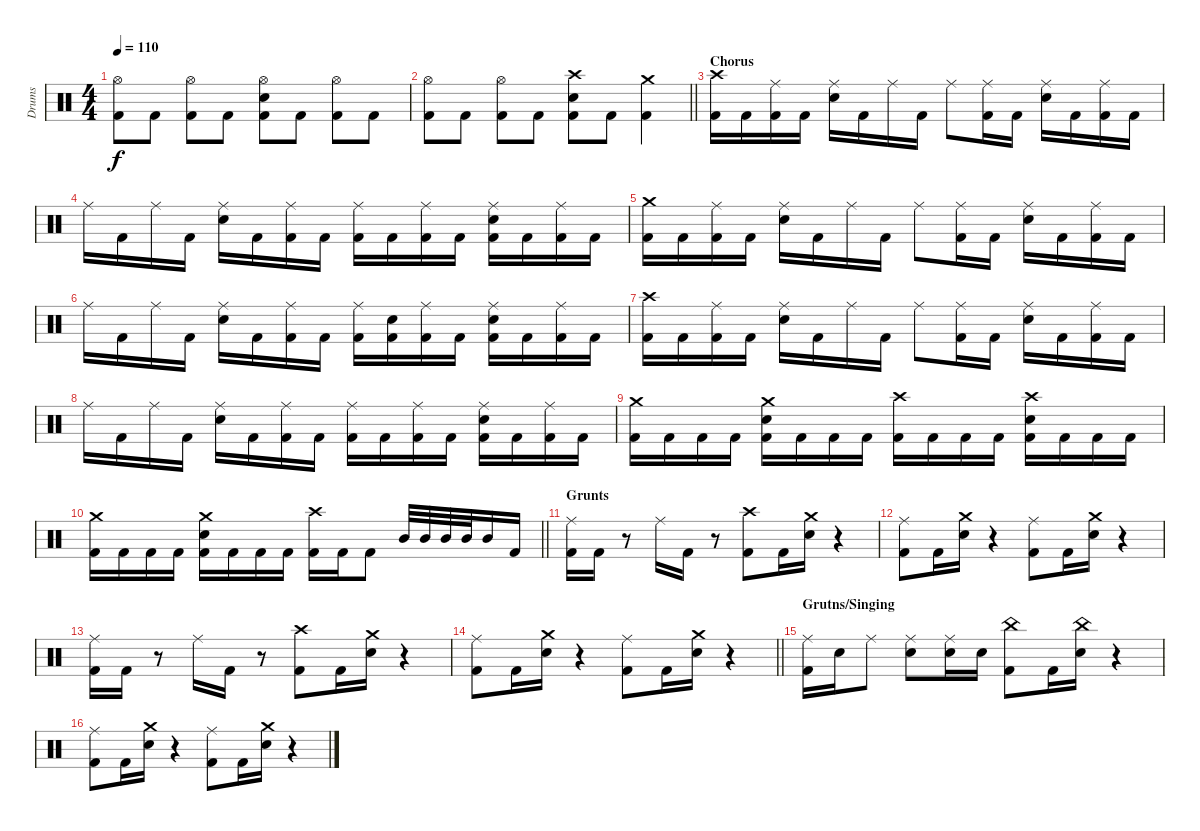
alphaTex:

\track ("Drums" "Drums") {instrument percussion}
\staff {score}
\articulation defaults
\ts (4 4)
\tempo 110
\clef neutral
\ks c
("Hi-Hat (open)" "Kick (hit) 2").8{dy f} "Kick (hit) 2".8 ("Hi-Hat (open)" "Kick (hit) 2").8 "Kick (hit) 2".8 ("Hi-Hat (open)" "Electric Snare (hit)" "Kick (hit) 2").8 "Kick (hit) 2".8 ("Hi-Hat (open)" "Kick (hit) 2").8 "Kick (hit) 2".8 |
\barLineRight lightlight
("Hi-Hat (open)" "Kick (hit) 2").8 "Kick (hit) 2".8 ("Hi-Hat (open)" "Kick (hit) 2").8 "Kick (hit) 2".8 ("Crash high (hit)" "Electric Snare (hit)" "Kick (hit) 2").8 "Kick (hit) 2".8 ("Crash medium (hit)" "Kick (hit) 2").4 |
\section ("" "Chorus")
("Crash high (hit)" "Kick (hit) 2").16 "Kick (hit) 2".16 ("Ride (middle)" "Kick (hit) 2").16 "Kick (hit) 2".16 ("Ride (middle)" "Electric Snare (hit)").16 "Kick (hit) 2".16 "Ride (middle)".16 "Kick (hit) 2".16 "Ride (middle)".8 ("Ride (middle)" "Kick (hit) 2").16 "Kick (hit) 2".16 ("Ride (middle)" "Electric Snare (hit)").16 "Kick (hit) 2".16 ("Ride (middle)" "Kick (hit) 2").16 "Kick (hit) 2".16 |
"Ride (middle)".16 "Kick (hit) 2".16 "Ride (middle)".16 "Kick (hit) 2".16 ("Ride (middle)" "Electric Snare (hit)").16 "Kick (hit) 2".16 ("Ride (middle)" "Kick (hit) 2").16 "Kick (hit) 2".16 ("Ride (middle)" "Kick (hit) 2").16 "Kick (hit) 2".16 ("Ride (middle)" "Kick (hit) 2").16 "Kick (hit) 2".16 ("Ride (middle)" "Electric Snare (hit)" "Kick (hit) 2").16 "Kick (hit) 2".16 ("Ride (middle)" "Kick (hit) 2").16 "Kick (hit) 2".16 |
("Crash medium (hit)" "Kick (hit) 2").16 "Kick (hit) 2".16 ("Ride (middle)" "Kick (hit) 2").16 "Kick (hit) 2".16 ("Ride (middle)" "Electric Snare (hit)").16 "Kick (hit) 2".16 "Ride (middle)".16 "Kick (hit) 2".16 "Ride (middle)".8 ("Ride (middle)" "Kick (hit) 2").16 "Kick (hit) 2".16 ("Ride (middle)" "Electric Snare (hit)").16 "Kick (hit) 2".16 ("Ride (middle)" "Kick (hit) 2").16 "Kick (hit) 2".16 |
"Ride (middle)".16 "Kick (hit) 2".16 "Ride (middle)".16 "Kick (hit) 2".16 ("Ride (middle)" "Electric Snare (hit)").16 "Kick (hit) 2".16 ("Ride (middle)" "Kick (hit) 2").16 "Kick (hit) 2".16 ("Ride (middle)" "Kick (hit) 2").16 ("Electric Snare (hit)" "Kick (hit) 2").16 ("Ride (middle)" "Kick (hit) 2").16 "Kick (hit) 2".16 ("Ride (middle)" "Electric Snare (hit)" "Kick (hit) 2").16 "Kick (hit) 2".16 ("Ride (middle)" "Kick (hit) 2").16 "Kick (hit) 2".16 |
("Crash high (hit)" "Kick (hit) 2").16 "Kick (hit) 2".16 ("Ride (middle)" "Kick (hit) 2").16 "Kick (hit) 2".16 ("Ride (middle)" "Electric Snare (hit)").16 "Kick (hit) 2".16 "Ride (middle)".16 "Kick (hit) 2".16 "Ride (middle)".8 ("Ride (middle)" "Kick (hit) 2").16 "Kick (hit) 2".16 ("Ride (middle)" "Electric Snare (hit)").16 "Kick (hit) 2".16 ("Ride (middle)" "Kick (hit) 2").16 "Kick (hit) 2".16 |
"Ride (middle)".16 "Kick (hit) 2".16 "Ride (middle)".16 "Kick (hit) 2".16 ("Ride (middle)" "Electric Snare (hit)").16 "Kick (hit) 2".16 ("Ride (middle)" "Kick (hit) 2").16 "Kick (hit) 2".16 ("Ride (middle)" "Kick (hit) 2").16 "Kick (hit) 2".16 ("Ride (middle)" "Kick (hit) 2").16 "Kick (hit) 2".16 ("Ride (middle)" "Electric Snare (hit)" "Kick (hit) 2").16 "Kick (hit) 2".16 ("Ride (middle)" "Kick (hit) 2").16 "Kick (hit) 2".16 |
("Crash medium (hit)" "Kick (hit) 2").16 "Kick (hit) 2".16 "Kick (hit) 2".16 "Kick (hit) 2".16 ("Crash medium (hit)" "Electric Snare (hit)" "Kick (hit) 2").16 "Kick (hit) 2".16 "Kick (hit) 2".16 "Kick (hit) 2".16 ("Crash high (hit)" "Kick (hit) 2").16 "Kick (hit) 2".16 "Kick (hit) 2".16 "Kick (hit) 2".16 ("Crash high (hit)" "Electric Snare (hit)" "Kick (hit) 2").16 "Kick (hit) 2".16 "Kick (hit) 2".16 "Kick (hit) 2".16 |
\barLineRight lightlight
("Crash medium (hit)" "Kick (hit) 2").16 "Kick (hit) 2".16 "Kick (hit) 2".16 "Kick (hit) 2".16 ("Crash medium (hit)" "Electric Snare (hit)" "Kick (hit) 2").16 "Kick (hit) 2".16 "Kick (hit) 2".16 "Kick (hit) 2".16 ("Crash high (hit)" "Kick (hit) 2").16 "Kick (hit) 2".16 "Kick (hit) 2".8 "Mid Tom (hit)".32 "Mid Tom (hit)".32 "Mid Tom (hit)".32 "Mid Tom (hit)".32 "Mid Tom (hit)".16 "Kick (hit) 2".16 |
\section ("" "Grunts")
("Ride (middle)" "Kick (hit) 2").16 "Kick (hit) 2".16 r.8 "Ride (middle)".16 "Kick (hit) 2".16 r.8 ("Crash high (hit)" "Kick (hit) 2").8 "Kick (hit) 2".16 ("Crash medium (hit)" "Electric Snare (hit)").16 r.4 |
("Ride (middle)" "Kick (hit) 2").8 "Kick (hit) 2".16 ("Crash medium (hit)" "Electric Snare (hit)").16 r.4 ("Ride (middle)" "Kick (hit) 2").8 "Kick (hit) 2".16 ("Crash medium (hit)" "Electric Snare (hit)").16 r.4 |
("Ride (middle)" "Kick (hit) 2").16 "Kick (hit) 2".16 r.8 "Ride (middle)".16 "Kick (hit) 2".16 r.8 ("Crash high (hit)" "Kick (hit) 2").8 "Kick (hit) 2".16 ("Crash medium (hit)" "Electric Snare (hit)").16 r.4 |
\barLineRight lightlight
("Ride (middle)" "Kick (hit) 2").8 "Kick (hit) 2".16 ("Crash medium (hit)" "Electric Snare (hit)").16 r.4 ("Ride (middle)" "Kick (hit) 2").8 "Kick (hit) 2".16 ("Crash medium (hit)" "Electric Snare (hit)").16 r.4 |
\section ("" "Grutns/Singing")
("Ride (middle)" "Kick (hit) 2").16 "Electric Snare (hit)".16 "Ride (middle)".8 ("Ride (middle)" "Electric Snare (hit)").8 ("Ride (middle)" "Electric Snare (hit)").16 "Electric Snare (hit)".16 ("China (hit)" "Kick (hit) 2").8 "Kick (hit) 2".16 ("China (hit)" "Electric Snare (hit)").16 r.4 |
("Ride (middle)" "Kick (hit) 2").8 "Kick (hit) 2".16 ("Crash medium (hit)" "Electric Snare (hit)").16 r.4 ("Ride (middle)" "Kick (hit) 2").8 "Kick (hit) 2".16 ("Crash medium (hit)" "Electric Snare (hit)").16 r.4
